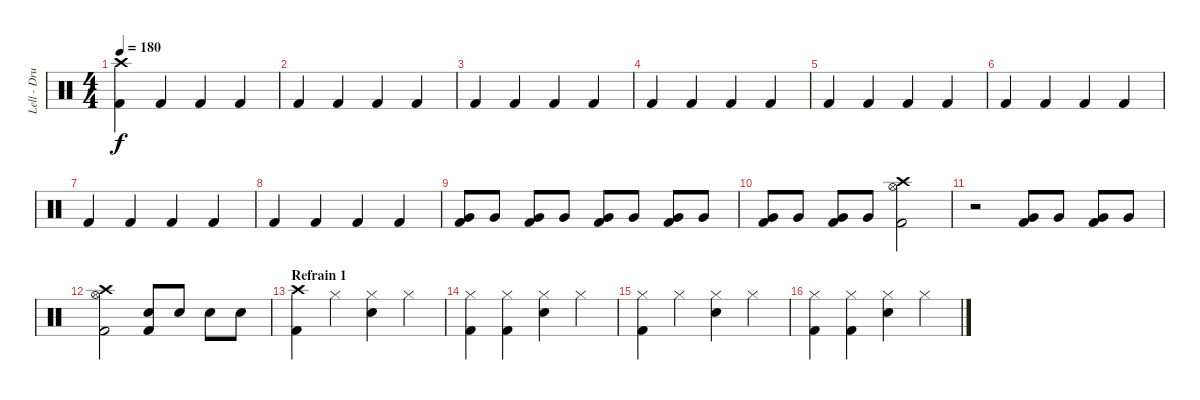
\track ("Lell - Drums" "Lell - Dru") {instrument percussion}
\staff {score}
\articulation defaults
\ts (4 4)
\tempo 180
\clef neutral
\ks c
("Crash high (hit)" "Kick (hit) 2").4{dy f} "Kick (hit) 2".4 "Kick (hit) 2".4 "Kick (hit) 2".4 |
"Kick (hit) 2".4 "Kick (hit) 2".4 "Kick (hit) 2".4 "Kick (hit) 2".4 |
"Kick (hit) 2".4 "Kick (hit) 2".4 "Kick (hit) 2".4 "Kick (hit) 2".4 |
"Kick (hit) 2".4 "Kick (hit) 2".4 "Kick (hit) 2".4 "Kick (hit) 2".4 |
"Kick (hit) 2".4 "Kick (hit) 2".4 "Kick (hit) 2".4 "Kick (hit) 2".4 |
"Kick (hit) 2".4 "Kick (hit) 2".4 "Kick (hit) 2".4 "Kick (hit) 2".4 |
"Kick (hit) 2".4 "Kick (hit) 2".4 "Kick (hit) 2".4 "Kick (hit) 2".4 |
"Kick (hit) 2".4 "Kick (hit) 2".4 "Kick (hit) 2".4 "Kick (hit) 2".4 |
("Very Low Tom (hit)" "Kick (hit) 2").8 "Very Low Tom (hit)".8 ("Very Low Tom (hit)" "Kick (hit) 2").8 "Very Low Tom (hit)".8 ("Very Low Tom (hit)" "Kick (hit) 2").8 "Very Low Tom (hit)".8 ("Very Low Tom (hit)" "Kick (hit) 2").8 "Very Low Tom (hit)".8 |
("Very Low Tom (hit)" "Kick (hit) 2").8 "Very Low Tom (hit)".8 ("Very Low Tom (hit)" "Kick (hit) 2").8 "Very Low Tom (hit)".8 ("Crash high (hit)" "Hi-Hat (open)" "Kick (hit) 2").2 |
r.2 ("Very Low Tom (hit)" "Kick (hit) 2").8 "Very Low Tom (hit)".8 ("Very Low Tom (hit)" "Kick (hit) 2").8 "Very Low Tom (hit)".8 |
("Crash high (hit)" "Hi-Hat (open)" "Kick (hit) 2").2 ("Snare (hit) 2" "Kick (hit) 2").8 "Snare (hit) 2".8 "Snare (hit) 2".8 "Snare (hit) 2".8 |
\section ("" "Refrain 1")
("Crash high (hit)" "Kick (hit) 2").4 "Hi-Hat (closed)".4 ("Hi-Hat (closed)" "Snare (hit) 2").4 "Hi-Hat (closed)".4 |
("Hi-Hat (closed)" "Kick (hit) 2").4 ("Hi-Hat (closed)" "Kick (hit) 2").4 ("Hi-Hat (closed)" "Snare (hit) 2").4 "Hi-Hat (closed)".4 |
("Hi-Hat (closed)" "Kick (hit) 2").4 "Hi-Hat (closed)".4 ("Hi-Hat (closed)" "Snare (hit) 2").4 "Hi-Hat (closed)".4 |
("Hi-Hat (closed)" "Kick (hit) 2").4 ("Hi-Hat (closed)" "Kick (hit) 2").4 ("Hi-Hat (closed)" "Snare (hit) 2").4 "Hi-Hat (closed)".4
